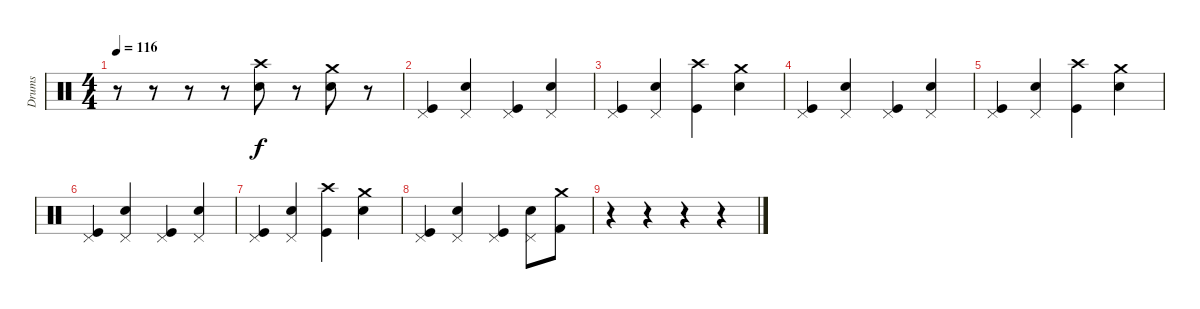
\track ("Drums" "Drums") {instrument percussion}
\staff {score}
\articulation defaults
\ts (4 4)
\tempo 116
\clef neutral
\ks c
r.8{dy f} r.8 r.8 r.8 ("Crash high (hit)" "Electric Snare (hit)").8 r.8 ("Crash medium (hit)" "Electric Snare (hit)").8 r.8 |
("Pedal Hi-Hat (hit)" "Kick (hit)").4 ("Pedal Hi-Hat (hit)" "Electric Snare (hit)").4 ("Pedal Hi-Hat (hit)" "Kick (hit)").4 ("Pedal Hi-Hat (hit)" "Electric Snare (hit)").4 |
("Pedal Hi-Hat (hit)" "Kick (hit)").4 ("Pedal Hi-Hat (hit)" "Electric Snare (hit)").4 ("Crash high (hit)" "Kick (hit)").4 ("Crash medium (hit)" "Electric Snare (hit)").4 |
("Pedal Hi-Hat (hit)" "Kick (hit)").4 ("Pedal Hi-Hat (hit)" "Electric Snare (hit)").4 ("Pedal Hi-Hat (hit)" "Kick (hit)").4 ("Pedal Hi-Hat (hit)" "Electric Snare (hit)").4 |
("Pedal Hi-Hat (hit)" "Kick (hit)").4 ("Pedal Hi-Hat (hit)" "Electric Snare (hit)").4 ("Crash high (hit)" "Kick (hit)").4 ("Crash medium (hit)" "Electric Snare (hit)").4 |
("Pedal Hi-Hat (hit)" "Kick (hit)").4 ("Pedal Hi-Hat (hit)" "Electric Snare (hit)").4 ("Pedal Hi-Hat (hit)" "Kick (hit)").4 ("Pedal Hi-Hat (hit)" "Electric Snare (hit)").4 |
("Pedal Hi-Hat (hit)" "Kick (hit)").4 ("Pedal Hi-Hat (hit)" "Electric Snare (hit)").4 ("Crash high (hit)" "Kick (hit)").4 ("Crash medium (hit)" "Electric Snare (hit)").4 |
("Pedal Hi-Hat (hit)" "Kick (hit)").4 ("Pedal Hi-Hat (hit)" "Electric Snare (hit)").4 ("Pedal Hi-Hat (hit)" "Kick (hit)").4 ("Pedal Hi-Hat (hit)" "Electric Snare (hit)").8 ("Crash medium (hit)" "Kick (hit) 2").8 |
r.4 r.4 r.4 r.4
